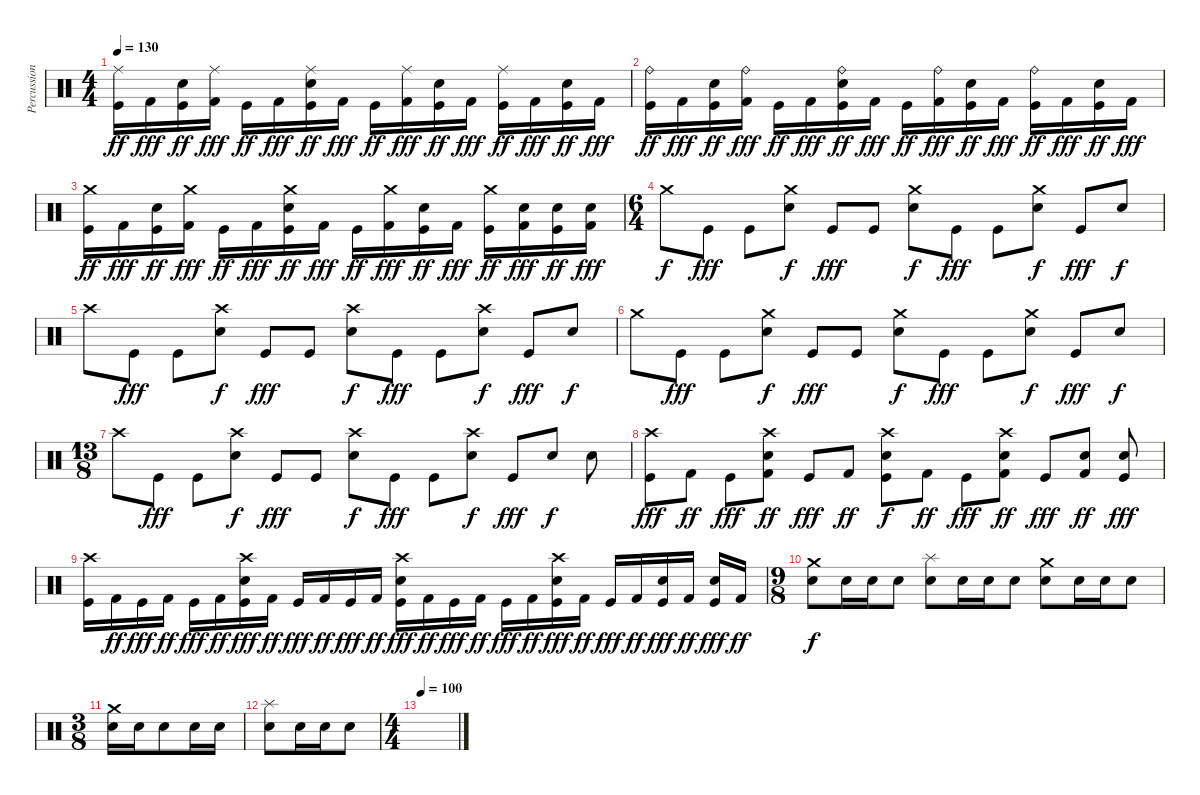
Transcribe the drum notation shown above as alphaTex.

\track ("Percussioni" "Percussion") {instrument percussion}
\staff {score}
\articulation defaults
\ts (4 4)
\tempo 130
\clef neutral
\ks c
("Ride (middle)" "Kick (hit)").16{dy ff} "Kick (hit) 2".16{dy fff} ("Snare (hit) 2" "Kick (hit)").16{dy ff} ("Ride (middle)" "Kick (hit) 2").16{dy fff} "Kick (hit)".16{dy ff} "Kick (hit) 2".16{dy fff} ("Ride (middle)" "Snare (hit) 2" "Kick (hit)").16{dy ff} "Kick (hit) 2".16{dy fff} "Kick (hit)".16{dy ff} ("Ride (middle)" "Kick (hit) 2").16{dy fff} ("Snare (hit) 2" "Kick (hit)").16{dy ff} "Kick (hit) 2".16{dy fff} ("Ride (middle)" "Kick (hit)").16{dy ff} "Kick (hit) 2".16{dy fff} ("Snare (hit) 2" "Kick (hit)").16{dy ff} "Kick (hit) 2".16{dy fff} |
("Ride (bell)" "Kick (hit)").16{dy ff} "Kick (hit) 2".16{dy fff} ("Snare (hit) 2" "Kick (hit)").16{dy ff} ("Ride (bell)" "Kick (hit) 2").16{dy fff} "Kick (hit)".16{dy ff} "Kick (hit) 2".16{dy fff} ("Ride (bell)" "Snare (hit) 2" "Kick (hit)").16{dy ff} "Kick (hit) 2".16{dy fff} "Kick (hit)".16{dy ff} ("Ride (bell)" "Kick (hit) 2").16{dy fff} ("Snare (hit) 2" "Kick (hit)").16{dy ff} "Kick (hit) 2".16{dy fff} ("Ride (bell)" "Kick (hit)").16{dy ff} "Kick (hit) 2".16{dy fff} ("Snare (hit) 2" "Kick (hit)").16{dy ff} "Kick (hit) 2".16{dy fff} |
("Crash medium (hit)" "Kick (hit)").16{dy ff} "Kick (hit) 2".16{dy fff} ("Snare (hit) 2" "Kick (hit)").16{dy ff} ("Crash medium (hit)" "Kick (hit) 2").16{dy fff} "Kick (hit)".16{dy ff} "Kick (hit) 2".16{dy fff} ("Crash medium (hit)" "Snare (hit) 2" "Kick (hit)").16{dy ff} "Kick (hit) 2".16{dy fff} "Kick (hit)".16{dy ff} ("Crash medium (hit)" "Kick (hit) 2").16{dy fff} ("Snare (hit) 2" "Kick (hit)").16{dy ff} "Kick (hit) 2".16{dy fff} ("Crash medium (hit)" "Kick (hit)").16{dy ff} ("Snare (hit) 2" "Kick (hit) 2").16{dy fff} ("Snare (hit) 2" "Kick (hit)").16{dy ff} ("Snare (hit) 2" "Kick (hit) 2").16{dy fff} |
\ts (6 4)
"Crash medium (hit)".8{dy f} "Kick (hit)".8{dy fff} "Kick (hit)".8 ("Crash medium (hit)" "Snare (hit) 2").8{dy f} "Kick (hit)".8{dy fff} "Kick (hit)".8 ("Crash medium (hit)" "Snare (hit) 2").8{dy f} "Kick (hit)".8{dy fff} "Kick (hit)".8 ("Crash medium (hit)" "Snare (hit) 2").8{dy f} "Kick (hit)".8{dy fff} "Snare (hit) 2".8{dy f} |
"Crash high (hit)".8 "Kick (hit)".8{dy fff} "Kick (hit)".8 ("Crash high (hit)" "Snare (hit) 2").8{dy f} "Kick (hit)".8{dy fff} "Kick (hit)".8 ("Crash high (hit)" "Snare (hit) 2").8{dy f} "Kick (hit)".8{dy fff} "Kick (hit)".8 ("Crash high (hit)" "Snare (hit) 2").8{dy f} "Kick (hit)".8{dy fff} "Snare (hit) 2".8{dy f} |
"Crash medium (hit)".8 "Kick (hit)".8{dy fff} "Kick (hit)".8 ("Crash medium (hit)" "Snare (hit) 2").8{dy f} "Kick (hit)".8{dy fff} "Kick (hit)".8 ("Crash medium (hit)" "Snare (hit) 2").8{dy f} "Kick (hit)".8{dy fff} "Kick (hit)".8 ("Crash medium (hit)" "Snare (hit) 2").8{dy f} "Kick (hit)".8{dy fff} "Snare (hit) 2".8{dy f} |
\ts (13 8)
"Crash high (hit)".8 "Kick (hit)".8{dy fff} "Kick (hit)".8 ("Crash high (hit)" "Snare (hit) 2").8{dy f} "Kick (hit)".8{dy fff} "Kick (hit)".8 ("Crash high (hit)" "Snare (hit) 2").8{dy f} "Kick (hit)".8{dy fff} "Kick (hit)".8 ("Crash high (hit)" "Snare (hit) 2").8{dy f} "Kick (hit)".8{dy fff} "Snare (hit) 2".8{dy f} "Snare (hit) 2".8 |
("Crash high (hit)" "Kick (hit)").8{dy fff} "Kick (hit) 2".8{dy ff} "Kick (hit)".8{dy fff} ("Crash high (hit)" "Snare (hit) 2" "Kick (hit) 2").8{dy ff} "Kick (hit)".8{dy fff} "Kick (hit) 2".8{dy ff} ("Crash high (hit)" "Snare (hit) 2" "Kick (hit)").8{dy f} "Kick (hit) 2".8{dy ff} "Kick (hit)".8{dy fff} ("Crash high (hit)" "Snare (hit) 2" "Kick (hit) 2").8{dy ff} "Kick (hit)".8{dy fff} ("Snare (hit) 2" "Kick (hit) 2").8{dy ff} ("Snare (hit) 2" "Kick (hit)").8{dy fff} |
("Crash high (hit)" "Kick (hit)").16 "Kick (hit) 2".16{dy ff} "Kick (hit)".16{dy fff} "Kick (hit) 2".16{dy ff} "Kick (hit)".16{dy fff} "Kick (hit) 2".16{dy ff} ("Crash high (hit)" "Snare (hit) 2" "Kick (hit)").16{dy fff} "Kick (hit) 2".16{dy ff} "Kick (hit)".16{dy fff} "Kick (hit) 2".16{dy ff} "Kick (hit)".16{dy fff} "Kick (hit) 2".16{dy ff} ("Crash high (hit)" "Snare (hit) 2" "Kick (hit)").16{dy fff} "Kick (hit) 2".16{dy ff} "Kick (hit)".16{dy fff} "Kick (hit) 2".16{dy ff} "Kick (hit)".16{dy fff} "Kick (hit) 2".16{dy ff} ("Crash high (hit)" "Snare (hit) 2" "Kick (hit)").16{dy fff} "Kick (hit) 2".16{dy ff} "Kick (hit)".16{dy fff} "Kick (hit) 2".16{dy ff} ("Snare (hit) 2" "Kick (hit)").16{dy fff} "Kick (hit) 2".16{dy ff} ("Snare (hit) 2" "Kick (hit)").16{dy fff} "Kick (hit) 2".16{dy ff} |
\ts (9 8)
("Crash medium (hit)" "Snare (hit) 2").8{dy f} "Snare (hit) 2".16 "Snare (hit) 2".16 "Snare (hit) 2".8 ("Splash (hit)" "Snare (hit) 2").8 "Snare (hit) 2".16 "Snare (hit) 2".16 "Snare (hit) 2".8 ("Crash medium (hit)" "Snare (hit) 2").8 "Snare (hit) 2".16 "Snare (hit) 2".16 "Snare (hit) 2".8 |
\ts (3 8)
("Crash medium (hit)" "Snare (hit) 2").16 "Snare (hit) 2".16 "Snare (hit) 2".8 "Snare (hit) 2".16 "Snare (hit) 2".16 |
("Splash (hit)" "Snare (hit) 2").8 "Snare (hit) 2".16 "Snare (hit) 2".16 "Snare (hit) 2".8 |
\ts (4 4)
\tempo 100
